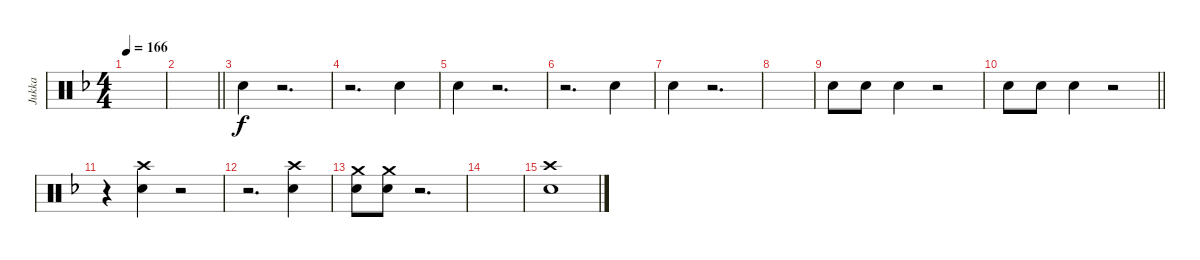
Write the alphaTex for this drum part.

\track ("Jukka" "Jukka") {instrument percussion}
\staff {score}
\articulation defaults
\ts (4 4)
\tempo 166
\clef neutral
\ks f
|
\barLineRight lightlight
|
\section ("" "")
"Electric Snare (hit)".4 r.2{d} |
r.2{d} "Electric Snare (hit)".4 |
"Electric Snare (hit)".4 r.2{d} |
r.2{d} "Electric Snare (hit)".4 |
"Electric Snare (hit)".4 r.2{d} |
|
"Electric Snare (hit)".8 "Electric Snare (hit)".8 "Electric Snare (hit)".4 r.2 |
\barLineRight lightlight "Electric Snare (hit)".8 "Electric Snare (hit)".8 "Electric Snare (hit)".4
r.2 |
\section ("" "")
r.4 ("Crash high (hit)" "Electric Snare (hit)").4 r.2 |
r.2{d} ("Crash high (hit)" "Electric Snare (hit)").4 |
("Crash medium (hit)" "Electric Snare (hit)").8 ("Crash medium (hit)" "Electric Snare (hit)").8 r.2{d} |
|
("Crash high (hit)" "Electric Snare (hit)").1
